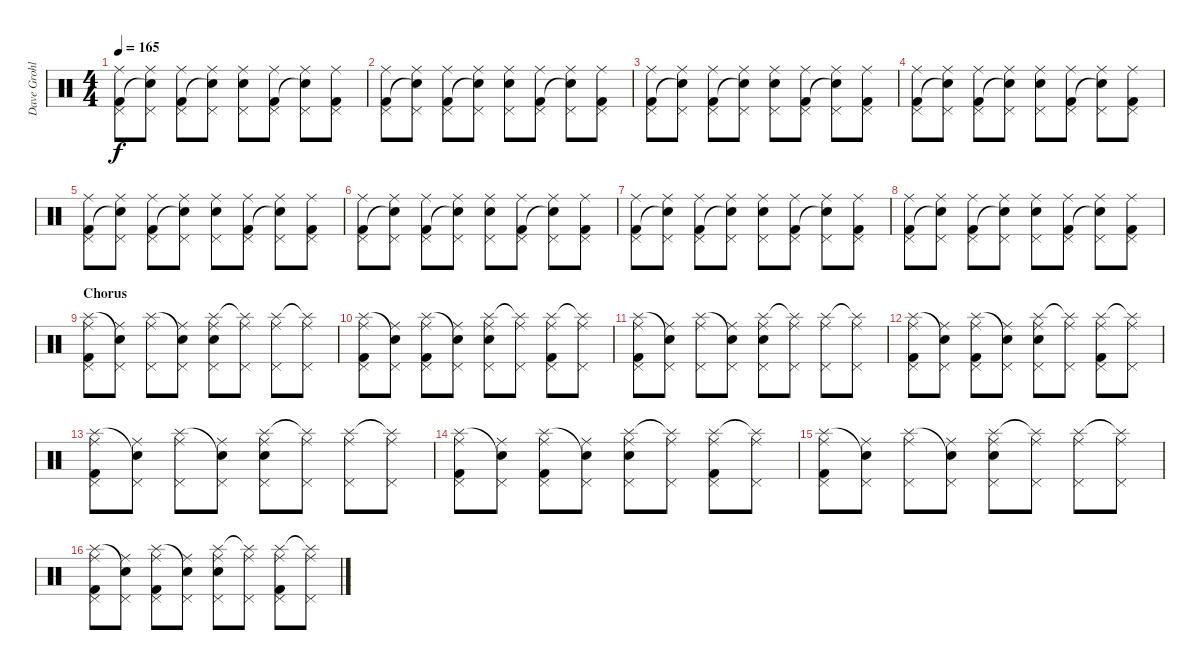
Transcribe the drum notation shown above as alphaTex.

\track ("Dave Grohl" "Dave Grohl") {instrument percussion}
\staff {score}
\articulation defaults
\ts (4 4)
\tempo 165
\clef neutral
\ks c
("Ride (middle)" "Pedal Hi-Hat (hit)" "Kick (hit) 2").8{dy f} ("Ride (middle)" "Pedal Hi-Hat (hit)" "Snare (hit)"{t}).8 ("Ride (middle)" "Pedal Hi-Hat (hit)" "Kick (hit) 2").8 ("Ride (middle)" "Pedal Hi-Hat (hit)" "Snare (hit)"{t}).8 ("Ride (middle)" "Pedal Hi-Hat (hit)" "Snare (hit) 2").8 ("Ride (middle)" "Pedal Hi-Hat (hit)" "Kick (hit) 2").8 ("Ride (middle)" "Pedal Hi-Hat (hit)" "Snare (hit)"{t}).8 ("Ride (middle)" "Pedal Hi-Hat (hit)" "Kick (hit) 2").8 |
("Ride (middle)" "Pedal Hi-Hat (hit)" "Kick (hit) 2").8 ("Ride (middle)" "Pedal Hi-Hat (hit)" "Snare (hit)"{t}).8 ("Ride (middle)" "Pedal Hi-Hat (hit)" "Kick (hit) 2").8 ("Ride (middle)" "Pedal Hi-Hat (hit)" "Snare (hit)"{t}).8 ("Ride (middle)" "Pedal Hi-Hat (hit)" "Snare (hit) 2").8 ("Ride (middle)" "Pedal Hi-Hat (hit)" "Kick (hit) 2").8 ("Ride (middle)" "Pedal Hi-Hat (hit)" "Snare (hit)"{t}).8 ("Ride (middle)" "Pedal Hi-Hat (hit)" "Kick (hit) 2").8 |
("Ride (middle)" "Pedal Hi-Hat (hit)" "Kick (hit) 2").8 ("Ride (middle)" "Pedal Hi-Hat (hit)" "Snare (hit)"{t}).8 ("Ride (middle)" "Pedal Hi-Hat (hit)" "Kick (hit) 2").8 ("Ride (middle)" "Pedal Hi-Hat (hit)" "Snare (hit)"{t}).8 ("Ride (middle)" "Pedal Hi-Hat (hit)" "Snare (hit) 2").8 ("Ride (middle)" "Pedal Hi-Hat (hit)" "Kick (hit) 2").8 ("Ride (middle)" "Pedal Hi-Hat (hit)" "Snare (hit)"{t}).8 ("Ride (middle)" "Pedal Hi-Hat (hit)" "Kick (hit) 2").8 |
("Ride (middle)" "Pedal Hi-Hat (hit)" "Kick (hit) 2").8 ("Ride (middle)" "Pedal Hi-Hat (hit)" "Snare (hit)"{t}).8 ("Ride (middle)" "Pedal Hi-Hat (hit)" "Kick (hit) 2").8 ("Ride (middle)" "Pedal Hi-Hat (hit)" "Snare (hit)"{t}).8 ("Ride (middle)" "Pedal Hi-Hat (hit)" "Snare (hit) 2").8 ("Ride (middle)" "Pedal Hi-Hat (hit)" "Kick (hit) 2").8 ("Ride (middle)" "Pedal Hi-Hat (hit)" "Snare (hit)"{t}).8 ("Ride (middle)" "Pedal Hi-Hat (hit)" "Kick (hit) 2").8 |
("Ride (middle)" "Pedal Hi-Hat (hit)" "Kick (hit) 2").8 ("Ride (middle)" "Pedal Hi-Hat (hit)" "Snare (hit)"{t}).8 ("Ride (middle)" "Pedal Hi-Hat (hit)" "Kick (hit) 2").8 ("Ride (middle)" "Pedal Hi-Hat (hit)" "Snare (hit)"{t}).8 ("Ride (middle)" "Pedal Hi-Hat (hit)" "Snare (hit) 2").8 ("Ride (middle)" "Pedal Hi-Hat (hit)" "Kick (hit) 2").8 ("Ride (middle)" "Pedal Hi-Hat (hit)" "Snare (hit)"{t}).8 ("Ride (middle)" "Pedal Hi-Hat (hit)" "Kick (hit) 2").8 |
("Ride (middle)" "Pedal Hi-Hat (hit)" "Kick (hit) 2").8 ("Ride (middle)" "Pedal Hi-Hat (hit)" "Snare (hit)"{t}).8 ("Ride (middle)" "Pedal Hi-Hat (hit)" "Kick (hit) 2").8 ("Ride (middle)" "Pedal Hi-Hat (hit)" "Snare (hit)"{t}).8 ("Ride (middle)" "Pedal Hi-Hat (hit)" "Snare (hit) 2").8 ("Ride (middle)" "Pedal Hi-Hat (hit)" "Kick (hit) 2").8 ("Ride (middle)" "Pedal Hi-Hat (hit)" "Snare (hit)"{t}).8 ("Ride (middle)" "Pedal Hi-Hat (hit)" "Kick (hit) 2").8 |
("Ride (middle)" "Pedal Hi-Hat (hit)" "Kick (hit) 2").8 ("Ride (middle)" "Pedal Hi-Hat (hit)" "Snare (hit)"{t}).8 ("Ride (middle)" "Pedal Hi-Hat (hit)" "Kick (hit) 2").8 ("Ride (middle)" "Pedal Hi-Hat (hit)" "Snare (hit)"{t}).8 ("Ride (middle)" "Pedal Hi-Hat (hit)" "Snare (hit) 2").8 ("Ride (middle)" "Pedal Hi-Hat (hit)" "Kick (hit) 2").8 ("Ride (middle)" "Pedal Hi-Hat (hit)" "Snare (hit)"{t}).8 ("Ride (middle)" "Pedal Hi-Hat (hit)" "Kick (hit) 2").8 |
("Ride (middle)" "Pedal Hi-Hat (hit)" "Kick (hit) 2").8 ("Ride (middle)" "Pedal Hi-Hat (hit)" "Snare (hit)"{t}).8 ("Ride (middle)" "Pedal Hi-Hat (hit)" "Kick (hit) 2").8 ("Ride (middle)" "Pedal Hi-Hat (hit)" "Snare (hit)"{t}).8 ("Ride (middle)" "Pedal Hi-Hat (hit)" "Snare (hit) 2").8 ("Ride (middle)" "Pedal Hi-Hat (hit)" "Kick (hit) 2").8 ("Ride (middle)" "Pedal Hi-Hat (hit)" "Snare (hit)"{t}).8 ("Ride (middle)" "Pedal Hi-Hat (hit)" "Kick (hit) 2").8 |
\section ("" "Chorus")
("Splash (hit)" "Pedal Hi-Hat (hit)" "Ride (middle)" "Kick (hit) 2").8 ("Snare (hit)"{t} "Pedal Hi-Hat (hit)" "Ride (middle)").8 ("Splash (hit)" "Pedal Hi-Hat (hit)" "Ride (middle)").8 ("Snare (hit)"{t} "Pedal Hi-Hat (hit)" "Ride (middle)").8 ("Splash (hit)" "Pedal Hi-Hat (hit)" "Ride (middle)" "Snare (hit) 2").8 ("Splash (hit)"{t} "Pedal Hi-Hat (hit)" "Ride (middle)").8 ("Splash (hit)" "Pedal Hi-Hat (hit)" "Ride (middle)").8 ("Splash (hit)"{t} "Pedal Hi-Hat (hit)" "Ride (middle)").8 |
("Splash (hit)" "Pedal Hi-Hat (hit)" "Ride (middle)" "Kick (hit) 2").8 ("Snare (hit)"{t} "Pedal Hi-Hat (hit)" "Ride (middle)").8 ("Splash (hit)" "Pedal Hi-Hat (hit)" "Ride (middle)" "Kick (hit) 2").8 ("Snare (hit)"{t} "Pedal Hi-Hat (hit)" "Ride (middle)").8 ("Splash (hit)" "Pedal Hi-Hat (hit)" "Ride (middle)" "Snare (hit) 2").8 ("Splash (hit)"{t} "Pedal Hi-Hat (hit)" "Ride (middle)").8 ("Splash (hit)" "Pedal Hi-Hat (hit)" "Ride (middle)" "Kick (hit) 2").8 ("Splash (hit)"{t} "Pedal Hi-Hat (hit)" "Ride (middle)").8 |
("Splash (hit)" "Pedal Hi-Hat (hit)" "Ride (middle)" "Kick (hit) 2").8 ("Snare (hit)"{t} "Pedal Hi-Hat (hit)" "Ride (middle)").8 ("Splash (hit)" "Pedal Hi-Hat (hit)" "Ride (middle)").8 ("Snare (hit)"{t} "Pedal Hi-Hat (hit)" "Ride (middle)").8 ("Splash (hit)" "Pedal Hi-Hat (hit)" "Ride (middle)" "Snare (hit) 2").8 ("Splash (hit)"{t} "Pedal Hi-Hat (hit)" "Ride (middle)").8 ("Splash (hit)" "Pedal Hi-Hat (hit)" "Ride (middle)").8 ("Splash (hit)"{t} "Pedal Hi-Hat (hit)" "Ride (middle)").8 |
("Splash (hit)" "Pedal Hi-Hat (hit)" "Ride (middle)" "Kick (hit) 2").8 ("Snare (hit)"{t} "Pedal Hi-Hat (hit)" "Ride (middle)").8 ("Splash (hit)" "Pedal Hi-Hat (hit)" "Ride (middle)" "Kick (hit) 2").8 ("Snare (hit)"{t} "Pedal Hi-Hat (hit)" "Ride (middle)").8 ("Splash (hit)" "Pedal Hi-Hat (hit)" "Ride (middle)" "Snare (hit) 2").8 ("Splash (hit)"{t} "Pedal Hi-Hat (hit)" "Ride (middle)").8 ("Splash (hit)" "Pedal Hi-Hat (hit)" "Ride (middle)" "Kick (hit) 2").8 ("Splash (hit)"{t} "Pedal Hi-Hat (hit)" "Ride (middle)").8 |
("Splash (hit)" "Pedal Hi-Hat (hit)" "Ride (middle)" "Kick (hit) 2").8 ("Snare (hit)"{t} "Pedal Hi-Hat (hit)" "Ride (middle)").8 ("Splash (hit)" "Pedal Hi-Hat (hit)" "Ride (middle)").8 ("Snare (hit)"{t} "Pedal Hi-Hat (hit)" "Ride (middle)").8 ("Splash (hit)" "Pedal Hi-Hat (hit)" "Ride (middle)" "Snare (hit) 2").8 ("Splash (hit)"{t} "Pedal Hi-Hat (hit)" "Ride (middle)").8 ("Splash (hit)" "Pedal Hi-Hat (hit)" "Ride (middle)").8 ("Splash (hit)"{t} "Pedal Hi-Hat (hit)" "Ride (middle)").8 |
("Splash (hit)" "Pedal Hi-Hat (hit)" "Ride (middle)" "Kick (hit) 2").8 ("Snare (hit)"{t} "Pedal Hi-Hat (hit)" "Ride (middle)").8 ("Splash (hit)" "Pedal Hi-Hat (hit)" "Ride (middle)" "Kick (hit) 2").8 ("Snare (hit)"{t} "Pedal Hi-Hat (hit)" "Ride (middle)").8 ("Splash (hit)" "Pedal Hi-Hat (hit)" "Ride (middle)" "Snare (hit) 2").8 ("Splash (hit)"{t} "Pedal Hi-Hat (hit)" "Ride (middle)").8 ("Splash (hit)" "Pedal Hi-Hat (hit)" "Ride (middle)" "Kick (hit) 2").8 ("Splash (hit)"{t} "Pedal Hi-Hat (hit)" "Ride (middle)").8 |
("Splash (hit)" "Pedal Hi-Hat (hit)" "Ride (middle)" "Kick (hit) 2").8 ("Snare (hit)"{t} "Pedal Hi-Hat (hit)" "Ride (middle)").8 ("Splash (hit)" "Pedal Hi-Hat (hit)" "Ride (middle)").8 ("Snare (hit)"{t} "Pedal Hi-Hat (hit)" "Ride (middle)").8 ("Splash (hit)" "Pedal Hi-Hat (hit)" "Ride (middle)" "Snare (hit) 2").8 ("Splash (hit)"{t} "Pedal Hi-Hat (hit)" "Ride (middle)").8 ("Splash (hit)" "Pedal Hi-Hat (hit)" "Ride (middle)").8 ("Splash (hit)"{t} "Pedal Hi-Hat (hit)" "Ride (middle)").8 |
("Splash (hit)" "Pedal Hi-Hat (hit)" "Ride (middle)" "Kick (hit) 2").8 ("Snare (hit)"{t} "Pedal Hi-Hat (hit)" "Ride (middle)").8 ("Splash (hit)" "Pedal Hi-Hat (hit)" "Ride (middle)" "Kick (hit) 2").8 ("Snare (hit)"{t} "Pedal Hi-Hat (hit)" "Ride (middle)").8 ("Splash (hit)" "Pedal Hi-Hat (hit)" "Ride (middle)" "Snare (hit) 2").8 ("Splash (hit)"{t} "Pedal Hi-Hat (hit)" "Ride (middle)").8 ("Splash (hit)" "Pedal Hi-Hat (hit)" "Ride (middle)" "Kick (hit) 2").8 ("Splash (hit)"{t} "Pedal Hi-Hat (hit)" "Ride (middle)").8
